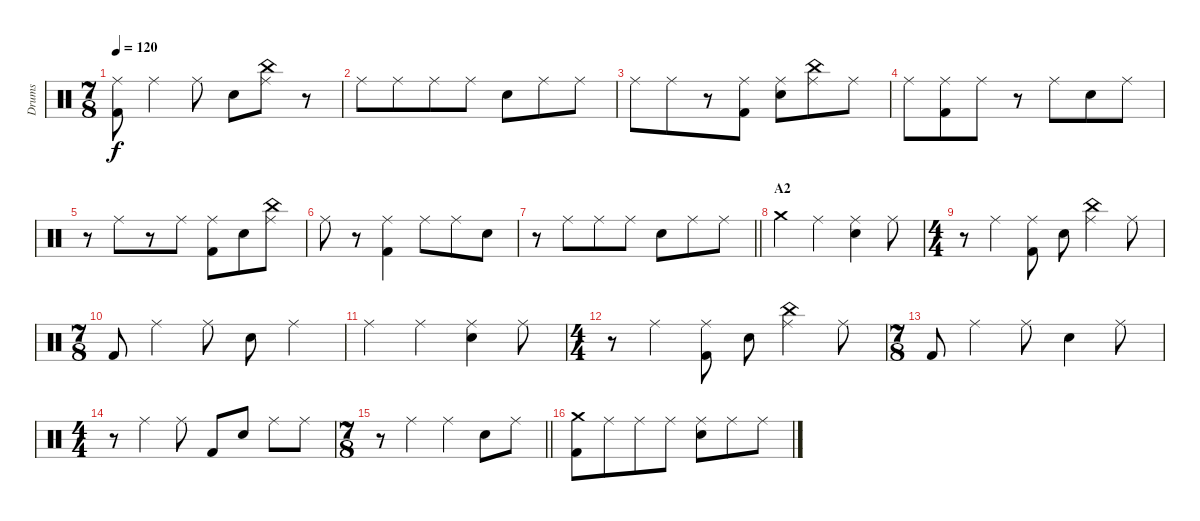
\track ("Drums" "Drums") {instrument percussion}
\staff {score}
\articulation defaults
\ts (7 8)
\tempo 120
\clef neutral
\ks c
("Ride (middle)" "Kick (hit) 2").8{dy f} "Ride (middle)".4 "Ride (middle)".8 "Snare (hit) 2".8 ("Ride (middle)" "China (hit)").8 r.8 |
"Ride (middle)".8 "Ride (middle)".8 "Ride (middle)".8 "Ride (middle)".8 "Snare (hit) 2".8 "Ride (middle)".8 "Ride (middle)".8 |
"Ride (middle)".8 "Ride (middle)".8 r.8 ("Ride (middle)" "Kick (hit) 2").8 ("Ride (middle)" "Snare (hit) 2").8 ("Ride (middle)" "China (hit)").8 "Ride (middle)".8 |
"Ride (middle)".8 ("Ride (middle)" "Kick (hit) 2").8 "Ride (middle)".8 r.8 "Ride (middle)".8 "Snare (hit) 2".8 "Ride (middle)".8 |
r.8 "Ride (middle)".8 r.8 "Ride (middle)".8 ("Ride (middle)" "Kick (hit) 2").8 "Snare (hit) 2".8 ("Ride (middle)" "China (hit)").8 |
"Ride (middle)".8 r.8 ("Ride (middle)" "Kick (hit) 2").4 "Ride (middle)".8 "Ride (middle)".8 "Snare (hit) 2".8 |
\barLineRight lightlight
r.8 "Ride (middle)".8 "Ride (middle)".8 "Ride (middle)".8 "Snare (hit) 2".8 "Ride (middle)".8 "Ride (middle)".8 |
\section ("" "A2")
"Crash medium (hit)".4 "Ride (middle)".4 ("Ride (middle)" "Snare (hit) 2").4 "Ride (middle)".8 |
\ts (4 4)
r.8 "Ride (middle)".4 ("Ride (middle)" "Kick (hit) 2").8 "Snare (hit) 2".8 ("Ride (middle)" "China (hit)").4 "Ride (middle)".8 |
\ts (7 8)
"Kick (hit) 2".8 "Ride (middle)".4 "Ride (middle)".8 "Snare (hit) 2".8 "Ride (middle)".4 |
"Ride (middle)".4 "Ride (middle)".4 ("Ride (middle)" "Snare (hit) 2").4 "Ride (middle)".8 |
\ts (4 4)
r.8 "Ride (middle)".4 ("Ride (middle)" "Kick (hit) 2").8 "Snare (hit) 2".8 ("Ride (middle)" "China (hit)").4 "Ride (middle)".8 |
\ts (7 8)
"Kick (hit) 2".8 "Ride (middle)".4 "Ride (middle)".8 "Snare (hit) 2".4 "Ride (middle)".8 |
\ts (4 4)
r.8 "Ride (middle)".4 "Ride (middle)".8 "Kick (hit) 2".8 "Snare (hit) 2".8 "Ride (middle)".8 "Ride (middle)".8 |
\ts (7 8)
\barLineRight lightlight
r.8 "Ride (middle)".4 "Ride (middle)".4 "Snare (hit) 2".8 "Ride (middle)".8 |
\section ("" "")
("Crash medium (hit)" "Kick (hit) 2").8 "Ride (middle)".8 "Ride (middle)".8 "Ride (middle)".8 ("Ride (middle)" "Snare (hit) 2").8 "Ride (middle)".8 "Ride (middle)".8
